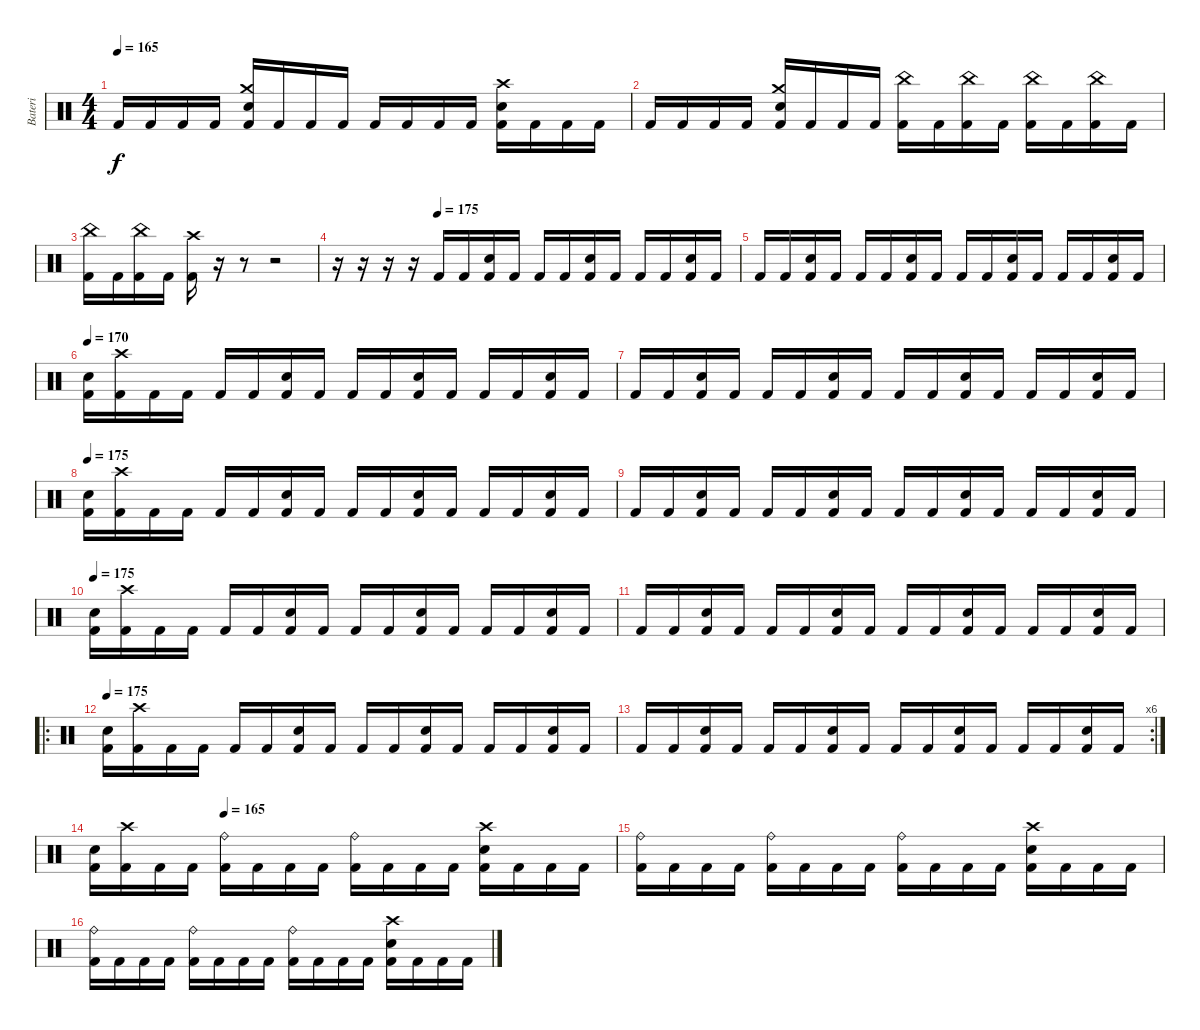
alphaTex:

\track ("Bateri" "Bateri") {instrument percussion}
\staff {score}
\articulation defaults
\ts (4 4)
\tempo 165
\clef neutral
\ks c "Kick (hit) 2".16{dy f} "Kick (hit) 2".16 "Kick (hit) 2".16 "Kick (hit) 2".16
("Crash medium (hit)" "Snare (hit) 2" "Kick (hit) 2").16 "Kick (hit) 2".16 "Kick (hit) 2".16 "Kick (hit) 2".16 "Kick (hit) 2".16 "Kick (hit) 2".16 "Kick (hit) 2".16 "Kick (hit) 2".16 ("Crash high (hit)" "Snare (hit) 2" "Kick (hit) 2").16 "Kick (hit) 2".16 "Kick (hit) 2".16 "Kick (hit) 2".16 |
"Kick (hit) 2".16 "Kick (hit) 2".16 "Kick (hit) 2".16 "Kick (hit) 2".16 ("Crash medium (hit)" "Snare (hit) 2" "Kick (hit) 2").16 "Kick (hit) 2".16 "Kick (hit) 2".16 "Kick (hit) 2".16 ("China (hit)" "Kick (hit) 2").16 "Kick (hit) 2".16 ("China (hit)" "Kick (hit) 2").16 "Kick (hit) 2".16 ("China (hit)" "Kick (hit) 2").16 "Kick (hit) 2".16 ("China (hit)" "Kick (hit) 2").16 "Kick (hit) 2".16 |
("China (hit)" "Kick (hit) 2").16 "Kick (hit) 2".16 ("China (hit)" "Kick (hit) 2").16 "Kick (hit) 2".16 ("Crash high (hit)" "Kick (hit) 2").16 r.16 r.8 r.2 |
\section ("" "")
\tempo (175 0.25)
r.16 r.16 r.16 r.16 "Kick (hit) 2".16 "Kick (hit) 2".16 ("Snare (hit) 2" "Kick (hit) 2").16 "Kick (hit) 2".16 "Kick (hit) 2".16 "Kick (hit) 2".16 ("Snare (hit) 2" "Kick (hit) 2").16 "Kick (hit) 2".16 "Kick (hit) 2".16 "Kick (hit) 2".16 ("Snare (hit) 2" "Kick (hit) 2").16 "Kick (hit) 2".16 |
"Kick (hit) 2".16 "Kick (hit) 2".16 ("Snare (hit) 2" "Kick (hit) 2").16 "Kick (hit) 2".16 "Kick (hit) 2".16 "Kick (hit) 2".16 ("Snare (hit) 2" "Kick (hit) 2").16 "Kick (hit) 2".16 "Kick (hit) 2".16 "Kick (hit) 2".16 ("Snare (hit) 2" "Kick (hit) 2").16 "Kick (hit) 2".16 "Kick (hit) 2".16 "Kick (hit) 2".16 ("Snare (hit) 2" "Kick (hit) 2").16 "Kick (hit) 2".16 |
\tempo 170
("Snare (hit) 2" "Kick (hit) 2").16 ("Crash high (hit)" "Kick (hit) 2").16 "Kick (hit) 2".16 "Kick (hit) 2".16 "Kick (hit) 2".16 "Kick (hit) 2".16 ("Snare (hit) 2" "Kick (hit) 2").16 "Kick (hit) 2".16 "Kick (hit) 2".16 "Kick (hit) 2".16 ("Snare (hit) 2" "Kick (hit) 2").16 "Kick (hit) 2".16 "Kick (hit) 2".16 "Kick (hit) 2".16 ("Snare (hit) 2" "Kick (hit) 2").16 "Kick (hit) 2".16 |
"Kick (hit) 2".16 "Kick (hit) 2".16 ("Snare (hit) 2" "Kick (hit) 2").16 "Kick (hit) 2".16 "Kick (hit) 2".16 "Kick (hit) 2".16 ("Snare (hit) 2" "Kick (hit) 2").16 "Kick (hit) 2".16 "Kick (hit) 2".16 "Kick (hit) 2".16 ("Snare (hit) 2" "Kick (hit) 2").16 "Kick (hit) 2".16 "Kick (hit) 2".16 "Kick (hit) 2".16 ("Snare (hit) 2" "Kick (hit) 2").16 "Kick (hit) 2".16 |
\tempo 175
("Snare (hit) 2" "Kick (hit) 2").16 ("Crash high (hit)" "Kick (hit) 2").16 "Kick (hit) 2".16 "Kick (hit) 2".16 "Kick (hit) 2".16 "Kick (hit) 2".16 ("Snare (hit) 2" "Kick (hit) 2").16 "Kick (hit) 2".16 "Kick (hit) 2".16 "Kick (hit) 2".16 ("Snare (hit) 2" "Kick (hit) 2").16 "Kick (hit) 2".16 "Kick (hit) 2".16 "Kick (hit) 2".16 ("Snare (hit) 2" "Kick (hit) 2").16 "Kick (hit) 2".16 |
"Kick (hit) 2".16 "Kick (hit) 2".16 ("Snare (hit) 2" "Kick (hit) 2").16 "Kick (hit) 2".16 "Kick (hit) 2".16 "Kick (hit) 2".16 ("Snare (hit) 2" "Kick (hit) 2").16 "Kick (hit) 2".16 "Kick (hit) 2".16 "Kick (hit) 2".16 ("Snare (hit) 2" "Kick (hit) 2").16 "Kick (hit) 2".16 "Kick (hit) 2".16 "Kick (hit) 2".16 ("Snare (hit) 2" "Kick (hit) 2").16 "Kick (hit) 2".16 |
\tempo 175
("Snare (hit) 2" "Kick (hit) 2").16 ("Crash high (hit)" "Kick (hit) 2").16 "Kick (hit) 2".16 "Kick (hit) 2".16 "Kick (hit) 2".16 "Kick (hit) 2".16 ("Snare (hit) 2" "Kick (hit) 2").16 "Kick (hit) 2".16 "Kick (hit) 2".16 "Kick (hit) 2".16 ("Snare (hit) 2" "Kick (hit) 2").16 "Kick (hit) 2".16 "Kick (hit) 2".16 "Kick (hit) 2".16 ("Snare (hit) 2" "Kick (hit) 2").16 "Kick (hit) 2".16 |
"Kick (hit) 2".16 "Kick (hit) 2".16 ("Snare (hit) 2" "Kick (hit) 2").16 "Kick (hit) 2".16 "Kick (hit) 2".16 "Kick (hit) 2".16 ("Snare (hit) 2" "Kick (hit) 2").16 "Kick (hit) 2".16 "Kick (hit) 2".16 "Kick (hit) 2".16 ("Snare (hit) 2" "Kick (hit) 2").16 "Kick (hit) 2".16 "Kick (hit) 2".16 "Kick (hit) 2".16 ("Snare (hit) 2" "Kick (hit) 2").16 "Kick (hit) 2".16 |
\ro
\tempo 175
("Snare (hit) 2" "Kick (hit) 2").16 ("Crash high (hit)" "Kick (hit) 2").16 "Kick (hit) 2".16 "Kick (hit) 2".16 "Kick (hit) 2".16 "Kick (hit) 2".16 ("Snare (hit) 2" "Kick (hit) 2").16 "Kick (hit) 2".16 "Kick (hit) 2".16 "Kick (hit) 2".16 ("Snare (hit) 2" "Kick (hit) 2").16 "Kick (hit) 2".16 "Kick (hit) 2".16 "Kick (hit) 2".16 ("Snare (hit) 2" "Kick (hit) 2").16 "Kick (hit) 2".16 |
\rc 6 "Kick (hit) 2".16 "Kick (hit) 2".16
("Snare (hit) 2" "Kick (hit) 2").16 "Kick (hit) 2".16 "Kick (hit) 2".16 "Kick (hit) 2".16 ("Snare (hit) 2" "Kick (hit) 2").16 "Kick (hit) 2".16 "Kick (hit) 2".16 "Kick (hit) 2".16 ("Snare (hit) 2" "Kick (hit) 2").16 "Kick (hit) 2".16 "Kick (hit) 2".16 "Kick (hit) 2".16 ("Snare (hit) 2" "Kick (hit) 2").16 "Kick (hit) 2".16 |
\section ("" "")
\tempo (165 0.25)
("Snare (hit) 2" "Kick (hit) 2").16 ("Crash high (hit)" "Kick (hit) 2").16 "Kick (hit) 2".16 "Kick (hit) 2".16 ("Ride (bell)" "Kick (hit) 2").16 "Kick (hit) 2".16 "Kick (hit) 2".16 "Kick (hit) 2".16 ("Ride (bell)" "Kick (hit) 2").16 "Kick (hit) 2".16 "Kick (hit) 2".16 "Kick (hit) 2".16 ("Snare (hit) 2" "Crash high (hit)" "Kick (hit) 2").16 "Kick (hit) 2".16 "Kick (hit) 2".16 "Kick (hit) 2".16 |
("Ride (bell)" "Kick (hit) 2").16 "Kick (hit) 2".16 "Kick (hit) 2".16 "Kick (hit) 2".16 ("Ride (bell)" "Kick (hit) 2").16 "Kick (hit) 2".16 "Kick (hit) 2".16 "Kick (hit) 2".16 ("Ride (bell)" "Kick (hit) 2").16 "Kick (hit) 2".16 "Kick (hit) 2".16 "Kick (hit) 2".16 ("Snare (hit) 2" "Crash high (hit)" "Kick (hit) 2").16 "Kick (hit) 2".16 "Kick (hit) 2".16 "Kick (hit) 2".16 |
("Ride (bell)" "Kick (hit) 2").16 "Kick (hit) 2".16 "Kick (hit) 2".16 "Kick (hit) 2".16 ("Ride (bell)" "Kick (hit) 2").16 "Kick (hit) 2".16 "Kick (hit) 2".16 "Kick (hit) 2".16 ("Ride (bell)" "Kick (hit) 2").16 "Kick (hit) 2".16 "Kick (hit) 2".16 "Kick (hit) 2".16 ("Snare (hit) 2" "Crash high (hit)" "Kick (hit) 2").16 "Kick (hit) 2".16 "Kick (hit) 2".16 "Kick (hit) 2".16
